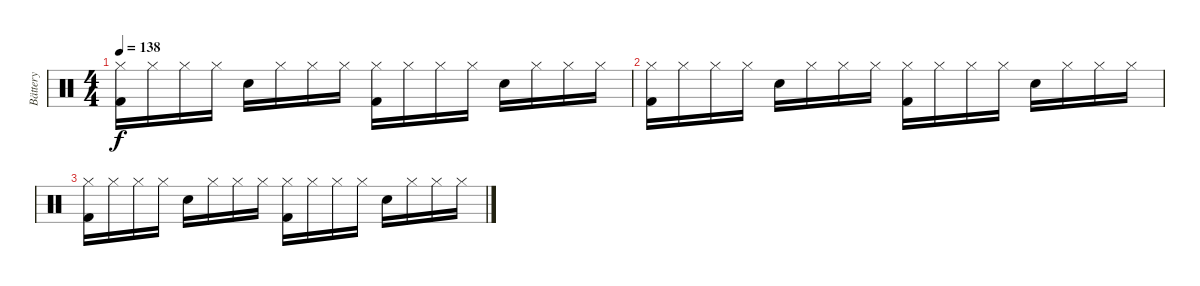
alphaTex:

\track ("Bättery" "Bättery") {instrument percussion}
\staff {score}
\articulation defaults
\ts (4 4)
\tempo 138
\clef neutral
\ks c
("Hi-Hat (closed)" "Kick (hit) 2").16{dy f} "Hi-Hat (closed)".16 "Hi-Hat (closed)".16 "Hi-Hat (closed)".16 "Electric Snare (hit)".16 "Hi-Hat (closed)".16 "Hi-Hat (closed)".16 "Hi-Hat (closed)".16 ("Hi-Hat (closed)" "Kick (hit) 2").16 "Hi-Hat (closed)".16 "Hi-Hat (closed)".16 "Hi-Hat (closed)".16 "Electric Snare (hit)".16 "Hi-Hat (closed)".16 "Hi-Hat (closed)".16 "Hi-Hat (closed)".16 |
("Hi-Hat (closed)" "Kick (hit) 2").16 "Hi-Hat (closed)".16 "Hi-Hat (closed)".16 "Hi-Hat (closed)".16 "Electric Snare (hit)".16 "Hi-Hat (closed)".16 "Hi-Hat (closed)".16 "Hi-Hat (closed)".16 ("Hi-Hat (closed)" "Kick (hit) 2").16 "Hi-Hat (closed)".16 "Hi-Hat (closed)".16 "Hi-Hat (closed)".16 "Electric Snare (hit)".16 "Hi-Hat (closed)".16 "Hi-Hat (closed)".16 "Hi-Hat (closed)".16 |
("Hi-Hat (closed)" "Kick (hit) 2").16 "Hi-Hat (closed)".16 "Hi-Hat (closed)".16 "Hi-Hat (closed)".16 "Electric Snare (hit)".16 "Hi-Hat (closed)".16 "Hi-Hat (closed)".16 "Hi-Hat (closed)".16 ("Hi-Hat (closed)" "Kick (hit) 2").16 "Hi-Hat (closed)".16 "Hi-Hat (closed)".16 "Hi-Hat (closed)".16 "Electric Snare (hit)".16 "Hi-Hat (closed)".16 "Hi-Hat (closed)".16 "Hi-Hat (closed)".16
